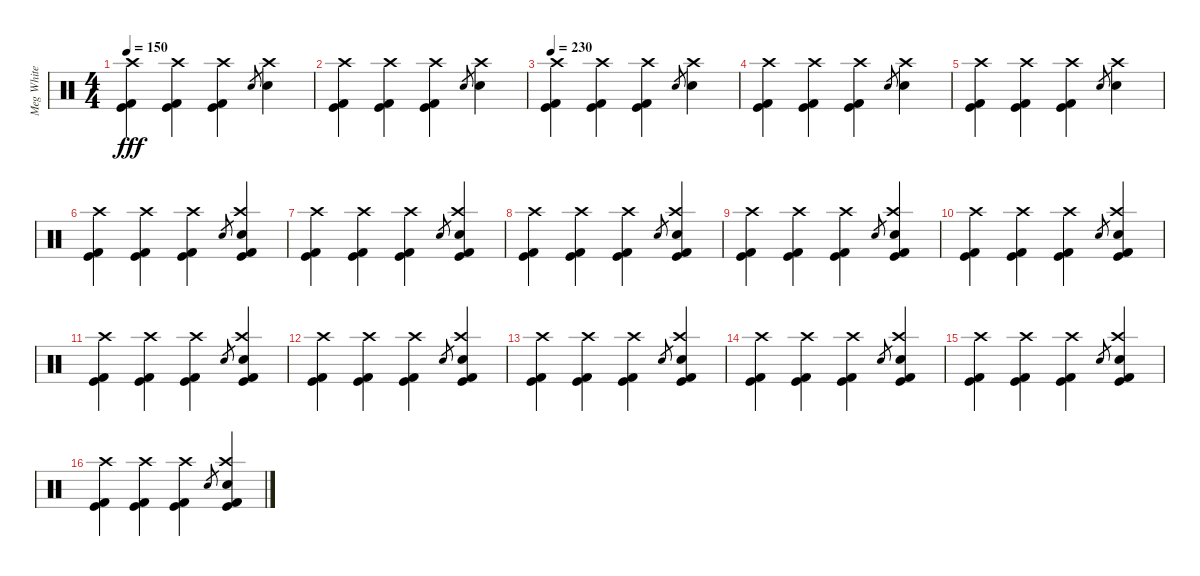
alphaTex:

\track ("Meg White (Drums)" "Meg White ") {instrument percussion}
\staff {score}
\articulation defaults
\ts (4 4)
\tempo 150
\clef neutral
\ks c
("Kick (hit) 2" "Kick (hit)" "Crash high (hit)").4{dy fff} ("Kick (hit) 2" "Kick (hit)" "Crash high (hit)").4 ("Kick (hit) 2" "Kick (hit)" "Crash high (hit)").4 "Electric Snare (hit)".8{gr} ("Electric Snare (hit)" "Crash high (hit)").4 |
("Kick (hit) 2" "Kick (hit)" "Crash high (hit)").4 ("Kick (hit) 2" "Kick (hit)" "Crash high (hit)").4 ("Kick (hit) 2" "Kick (hit)" "Crash high (hit)").4 "Electric Snare (hit)".8{gr} ("Electric Snare (hit)" "Crash high (hit)").4 |
\tempo 230
("Kick (hit) 2" "Kick (hit)" "Crash high (hit)").4 ("Kick (hit) 2" "Kick (hit)" "Crash high (hit)").4 ("Kick (hit) 2" "Kick (hit)" "Crash high (hit)").4 "Electric Snare (hit)".8{gr} ("Electric Snare (hit)" "Crash high (hit)").4 |
("Kick (hit) 2" "Kick (hit)" "Crash high (hit)").4 ("Kick (hit) 2" "Kick (hit)" "Crash high (hit)").4 ("Kick (hit) 2" "Kick (hit)" "Crash high (hit)").4 "Electric Snare (hit)".8{gr} ("Electric Snare (hit)" "Crash high (hit)").4 |
("Kick (hit) 2" "Kick (hit)" "Crash high (hit)").4 ("Kick (hit) 2" "Kick (hit)" "Crash high (hit)").4 ("Kick (hit) 2" "Kick (hit)" "Crash high (hit)").4 "Electric Snare (hit)".8{gr} ("Electric Snare (hit)" "Crash high (hit)").4 |
("Kick (hit) 2" "Kick (hit)" "Crash high (hit)").4 ("Kick (hit) 2" "Kick (hit)" "Crash high (hit)").4 ("Kick (hit) 2" "Kick (hit)" "Crash high (hit)").4 "Electric Snare (hit)".8{gr} ("Kick (hit) 2" "Kick (hit)" "Electric Snare (hit)" "Crash high (hit)").4 |
("Kick (hit) 2" "Kick (hit)" "Crash high (hit)").4 ("Kick (hit) 2" "Kick (hit)" "Crash high (hit)").4 ("Kick (hit) 2" "Kick (hit)" "Crash high (hit)").4 "Electric Snare (hit)".8{gr} ("Kick (hit) 2" "Kick (hit)" "Electric Snare (hit)" "Crash high (hit)").4 |
("Kick (hit) 2" "Kick (hit)" "Crash high (hit)").4 ("Kick (hit) 2" "Kick (hit)" "Crash high (hit)").4 ("Kick (hit) 2" "Kick (hit)" "Crash high (hit)").4 "Electric Snare (hit)".8{gr} ("Kick (hit) 2" "Kick (hit)" "Electric Snare (hit)" "Crash high (hit)").4 |
("Kick (hit) 2" "Kick (hit)" "Crash high (hit)").4 ("Kick (hit) 2" "Kick (hit)" "Crash high (hit)").4 ("Kick (hit) 2" "Kick (hit)" "Crash high (hit)").4 "Electric Snare (hit)".8{gr} ("Kick (hit) 2" "Kick (hit)" "Electric Snare (hit)" "Crash high (hit)").4 |
("Kick (hit) 2" "Kick (hit)" "Crash high (hit)").4 ("Kick (hit) 2" "Kick (hit)" "Crash high (hit)").4 ("Kick (hit) 2" "Kick (hit)" "Crash high (hit)").4 "Electric Snare (hit)".8{gr} ("Kick (hit) 2" "Kick (hit)" "Electric Snare (hit)" "Crash high (hit)").4 |
("Kick (hit) 2" "Kick (hit)" "Crash high (hit)").4 ("Kick (hit) 2" "Kick (hit)" "Crash high (hit)").4 ("Kick (hit) 2" "Kick (hit)" "Crash high (hit)").4 "Electric Snare (hit)".8{gr} ("Kick (hit) 2" "Kick (hit)" "Electric Snare (hit)" "Crash high (hit)").4 |
("Kick (hit) 2" "Kick (hit)" "Crash high (hit)").4 ("Kick (hit) 2" "Kick (hit)" "Crash high (hit)").4 ("Kick (hit) 2" "Kick (hit)" "Crash high (hit)").4 "Electric Snare (hit)".8{gr} ("Kick (hit) 2" "Kick (hit)" "Electric Snare (hit)" "Crash high (hit)").4 |
("Kick (hit) 2" "Kick (hit)" "Crash high (hit)").4 ("Kick (hit) 2" "Kick (hit)" "Crash high (hit)").4 ("Kick (hit) 2" "Kick (hit)" "Crash high (hit)").4 "Electric Snare (hit)".8{gr} ("Kick (hit) 2" "Kick (hit)" "Electric Snare (hit)" "Crash high (hit)").4 |
("Kick (hit) 2" "Kick (hit)" "Crash high (hit)").4 ("Kick (hit) 2" "Kick (hit)" "Crash high (hit)").4 ("Kick (hit) 2" "Kick (hit)" "Crash high (hit)").4 "Electric Snare (hit)".8{gr} ("Kick (hit) 2" "Kick (hit)" "Electric Snare (hit)" "Crash high (hit)").4 |
("Kick (hit) 2" "Kick (hit)" "Crash high (hit)").4 ("Kick (hit) 2" "Kick (hit)" "Crash high (hit)").4 ("Kick (hit) 2" "Kick (hit)" "Crash high (hit)").4 "Electric Snare (hit)".8{gr} ("Kick (hit) 2" "Kick (hit)" "Electric Snare (hit)" "Crash high (hit)").4 |
("Kick (hit) 2" "Kick (hit)" "Crash high (hit)").4 ("Kick (hit) 2" "Kick (hit)" "Crash high (hit)").4 ("Kick (hit) 2" "Kick (hit)" "Crash high (hit)").4 "Electric Snare (hit)".8{gr} ("Kick (hit) 2" "Kick (hit)" "Electric Snare (hit)" "Crash high (hit)").4
